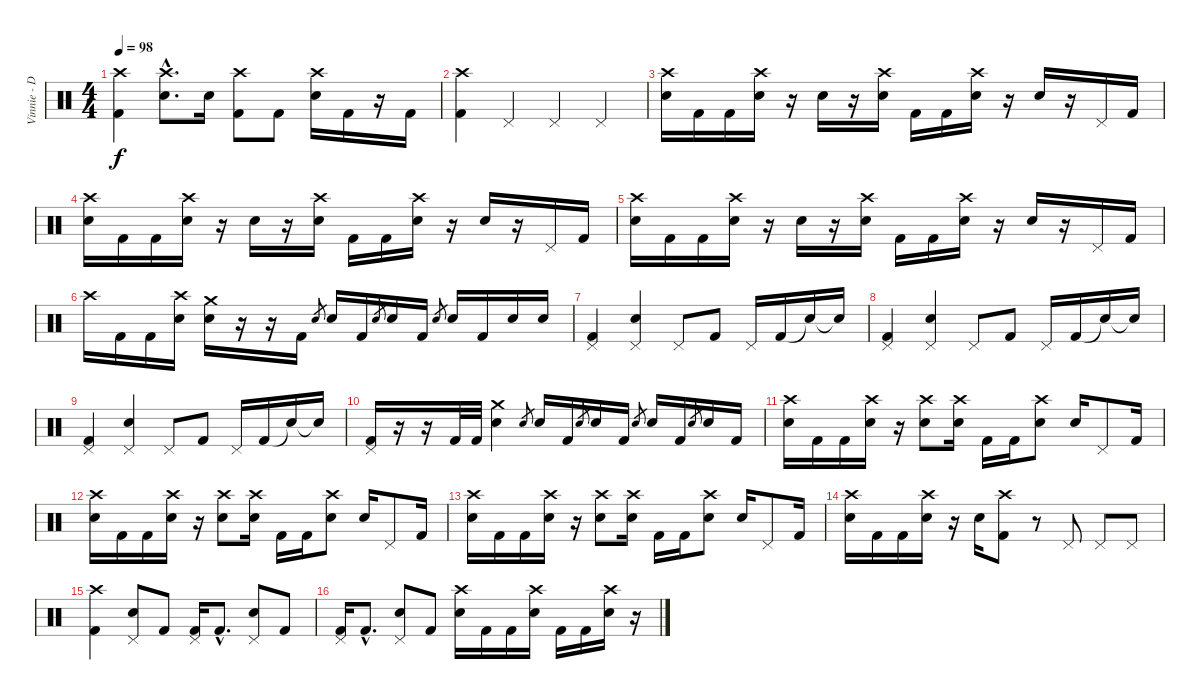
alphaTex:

\track ("Vinnie - Drums" "Vinnie - D") {instrument percussion}
\staff {score}
\articulation defaults
\ts (4 4)
\tempo 98
\clef neutral
\ks c
("Crash high (hit)" "Kick (hit) 2").4{dy f} ("Crash high (hit)"{hac} "Electric Snare (hit)"{hac}).8{d} "Electric Snare (hit)".16 ("Crash high (hit)" "Kick (hit) 2").8 "Kick (hit) 2".8 ("Crash high (hit)" "Electric Snare (hit)").16 "Kick (hit) 2".16 r.16 "Kick (hit) 2".16 |
("Crash high (hit)" "Kick (hit) 2").4 "Pedal Hi-Hat (hit)".4 "Pedal Hi-Hat (hit)".4 "Pedal Hi-Hat (hit)".4 |
("Crash high (hit)" "Electric Snare (hit)").16 "Kick (hit) 2".16 "Kick (hit) 2".16 ("Crash high (hit)" "Electric Snare (hit)").16 r.16 "Electric Snare (hit)".16 r.16 ("Crash high (hit)" "Electric Snare (hit)").16 "Kick (hit) 2".16 "Kick (hit) 2".16 ("Crash high (hit)" "Electric Snare (hit)").16 r.16 "Electric Snare (hit)".16 r.16 "Pedal Hi-Hat (hit)".16 "Kick (hit) 2".16 |
("Crash high (hit)" "Electric Snare (hit)").16 "Kick (hit) 2".16 "Kick (hit) 2".16 ("Crash high (hit)" "Electric Snare (hit)").16 r.16 "Electric Snare (hit)".16 r.16 ("Crash high (hit)" "Electric Snare (hit)").16 "Kick (hit) 2".16 "Kick (hit) 2".16 ("Crash high (hit)" "Electric Snare (hit)").16 r.16 "Electric Snare (hit)".16 r.16 "Pedal Hi-Hat (hit)".16 "Kick (hit) 2".16 |
("Crash high (hit)" "Electric Snare (hit)").16 "Kick (hit) 2".16 "Kick (hit) 2".16 ("Crash high (hit)" "Electric Snare (hit)").16 r.16 "Electric Snare (hit)".16 r.16 ("Crash high (hit)" "Electric Snare (hit)").16 "Kick (hit) 2".16 "Kick (hit) 2".16 ("Crash high (hit)" "Electric Snare (hit)").16 r.16 "Electric Snare (hit)".16 r.16 "Pedal Hi-Hat (hit)".16 "Kick (hit) 2".16 |
"Crash high (hit)".16 "Kick (hit) 2".16 "Kick (hit) 2".16 ("Crash high (hit)" "Electric Snare (hit)").16 ("Crash medium (hit)" "Electric Snare (hit)").16 r.16 r.16 "Kick (hit) 2".16 "Electric Snare (hit)".8{gr} "Electric Snare (hit)".16 "Kick (hit) 2".16 "Electric Snare (hit)".8{gr} "Electric Snare (hit)".16 "Kick (hit) 2".16 "Electric Snare (hit)".8{gr} "Electric Snare (hit)".16 "Kick (hit) 2".16 "Electric Snare (hit)".16 "Electric Snare (hit)".16 |
("Pedal Hi-Hat (hit)" "Kick (hit) 2").4 ("Pedal Hi-Hat (hit)" "Electric Snare (hit)").4 "Pedal Hi-Hat (hit)".8 "Kick (hit) 2".8 "Pedal Hi-Hat (hit)".16 "Kick (hit) 2".16 "Snare (hit)"{t}.16 "Snare (hit)"{t}.16 |
("Pedal Hi-Hat (hit)" "Kick (hit) 2").4 ("Pedal Hi-Hat (hit)" "Electric Snare (hit)").4 "Pedal Hi-Hat (hit)".8 "Kick (hit) 2".8 "Pedal Hi-Hat (hit)".16 "Kick (hit) 2".16 "Snare (hit)"{t}.16 "Snare (hit)"{t}.16 |
("Pedal Hi-Hat (hit)" "Kick (hit) 2").4 ("Pedal Hi-Hat (hit)" "Electric Snare (hit)").4 "Pedal Hi-Hat (hit)".8 "Kick (hit) 2".8 "Pedal Hi-Hat (hit)".16 "Kick (hit) 2".16 "Snare (hit)"{t}.16 "Snare (hit)"{t}.16 |
("Pedal Hi-Hat (hit)" "Kick (hit) 2").16 r.16 r.16 "Kick (hit) 2".32 "Kick (hit) 2".32 ("Crash medium (hit)" "Electric Snare (hit)").4 "Electric Snare (hit)".8{gr} "Electric Snare (hit)".16 "Kick (hit) 2".16 "Electric Snare (hit)".8{gr} "Electric Snare (hit)".16 "Kick (hit) 2".16 "Electric Snare (hit)".8{gr} "Electric Snare (hit)".16 "Kick (hit) 2".16 "Electric Snare (hit)".8{gr} "Electric Snare (hit)".16 "Kick (hit) 2".16 |
("Crash high (hit)" "Electric Snare (hit)").16 "Kick (hit) 2".16 "Kick (hit) 2".16 ("Crash high (hit)" "Electric Snare (hit)").16 r.16 ("Crash high (hit)" "Electric Snare (hit)").8 ("Crash high (hit)" "Electric Snare (hit)").16 "Kick (hit) 2".16 "Kick (hit) 2".16 ("Crash high (hit)" "Electric Snare (hit)").8 "Electric Snare (hit)".16 "Pedal Hi-Hat (hit)".8 "Kick (hit) 2".16 |
("Crash high (hit)" "Electric Snare (hit)").16 "Kick (hit) 2".16 "Kick (hit) 2".16 ("Crash high (hit)" "Electric Snare (hit)").16 r.16 ("Crash high (hit)" "Electric Snare (hit)").8 ("Crash high (hit)" "Electric Snare (hit)").16 "Kick (hit) 2".16 "Kick (hit) 2".16 ("Crash high (hit)" "Electric Snare (hit)").8 "Electric Snare (hit)".16 "Pedal Hi-Hat (hit)".8 "Kick (hit) 2".16 |
("Crash high (hit)" "Electric Snare (hit)").16 "Kick (hit) 2".16 "Kick (hit) 2".16 ("Crash high (hit)" "Electric Snare (hit)").16 r.16 ("Crash high (hit)" "Electric Snare (hit)").8 ("Crash high (hit)" "Electric Snare (hit)").16 "Kick (hit) 2".16 "Kick (hit) 2".16 ("Crash high (hit)" "Electric Snare (hit)").8 "Electric Snare (hit)".16 "Pedal Hi-Hat (hit)".8 "Kick (hit) 2".16 |
("Crash high (hit)" "Electric Snare (hit)").16 "Kick (hit) 2".16 "Kick (hit) 2".16 ("Crash high (hit)" "Electric Snare (hit)").16 r.16 "Electric Snare (hit)".16 ("Crash high (hit)" "Kick (hit) 2").8 r.8 "Pedal Hi-Hat (hit)".8 "Pedal Hi-Hat (hit)".8 "Pedal Hi-Hat (hit)".8 |
("Crash high (hit)" "Kick (hit) 2").4 ("Pedal Hi-Hat (hit)" "Electric Snare (hit)").8 "Kick (hit) 2".8 ("Pedal Hi-Hat (hit)" "Kick (hit) 2").16 "Kick (hit) 2"{hac}.8{d} ("Pedal Hi-Hat (hit)" "Electric Snare (hit)").8 "Kick (hit) 2".8 |
("Pedal Hi-Hat (hit)" "Kick (hit) 2").16 "Kick (hit) 2"{hac}.8{d} ("Pedal Hi-Hat (hit)" "Electric Snare (hit)").8 "Kick (hit) 2".8 ("Crash high (hit)" "Electric Snare (hit)").16 "Kick (hit) 2".16 "Kick (hit) 2".16 ("Crash high (hit)" "Electric Snare (hit)").16 "Kick (hit) 2".16 "Kick (hit) 2".16 ("Crash high (hit)" "Electric Snare (hit)").16 r.16
